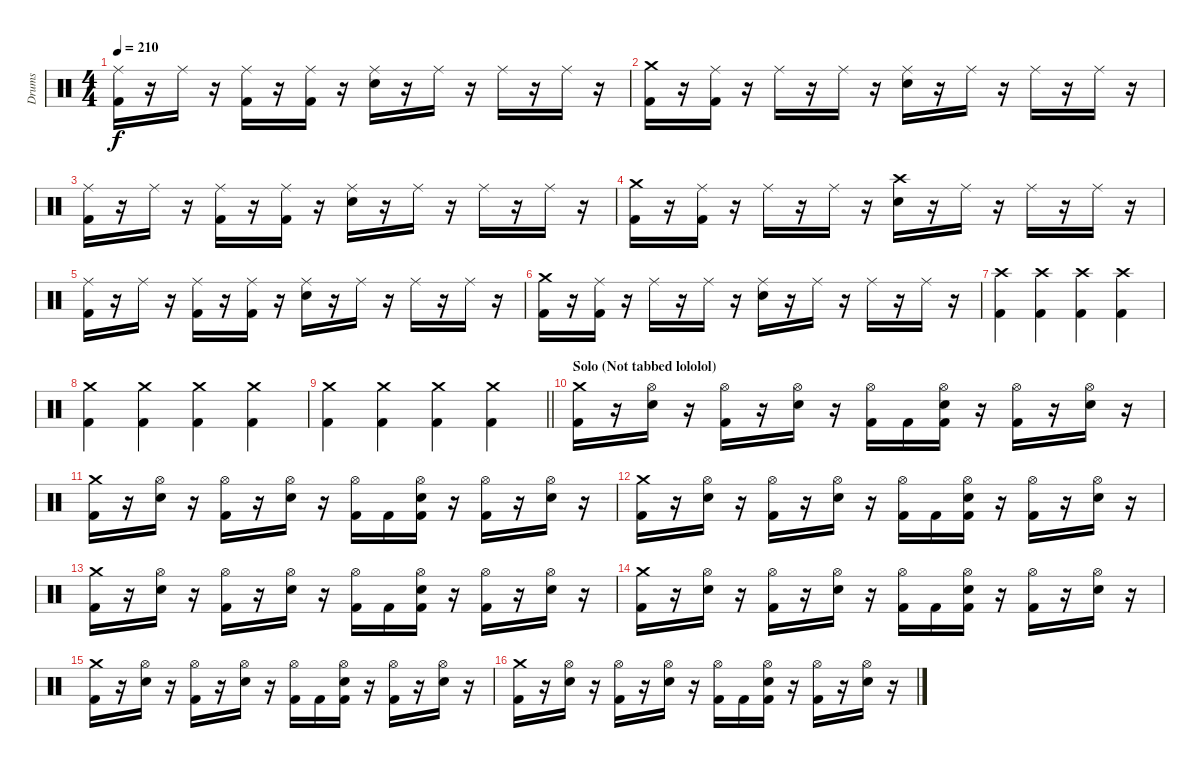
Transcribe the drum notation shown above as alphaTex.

\track ("Drums" "Drums") {instrument percussion}
\staff {score}
\articulation defaults
\ts (4 4)
\tempo 210
\clef neutral
\ks c
("Ride (middle)" "Kick (hit) 2").16{dy f} r.16 "Ride (middle)".16 r.16 ("Ride (middle)" "Kick (hit) 2").16 r.16 ("Ride (middle)" "Kick (hit) 2").16 r.16 ("Ride (middle)" "Electric Snare (hit)").16 r.16 "Ride (middle)".16 r.16 "Ride (middle)".16 r.16 "Ride (middle)".16 r.16 |
("Crash medium (hit)" "Kick (hit) 2").16 r.16 ("Ride (middle)" "Kick (hit) 2").16 r.16 "Ride (middle)".16 r.16 "Ride (middle)".16 r.16 ("Ride (middle)" "Electric Snare (hit)").16 r.16 "Ride (middle)".16 r.16 "Ride (middle)".16 r.16 "Ride (middle)".16 r.16 |
("Ride (middle)" "Kick (hit) 2").16 r.16 "Ride (middle)".16 r.16 ("Ride (middle)" "Kick (hit) 2").16 r.16 ("Ride (middle)" "Kick (hit) 2").16 r.16 ("Ride (middle)" "Electric Snare (hit)").16 r.16 "Ride (middle)".16 r.16 "Ride (middle)".16 r.16 "Ride (middle)".16 r.16 |
("Crash medium (hit)" "Kick (hit) 2").16 r.16 ("Ride (middle)" "Kick (hit) 2").16 r.16 "Ride (middle)".16 r.16 "Ride (middle)".16 r.16 ("Crash high (hit)" "Electric Snare (hit)").16 r.16 "Ride (middle)".16 r.16 "Ride (middle)".16 r.16 "Ride (middle)".16 r.16 |
("Ride (middle)" "Kick (hit) 2").16 r.16 "Ride (middle)".16 r.16 ("Ride (middle)" "Kick (hit) 2").16 r.16 ("Ride (middle)" "Kick (hit) 2").16 r.16 ("Ride (middle)" "Electric Snare (hit)").16 r.16 "Ride (middle)".16 r.16 "Ride (middle)".16 r.16 "Ride (middle)".16 r.16 |
("Crash medium (hit)" "Kick (hit) 2").16 r.16 ("Ride (middle)" "Kick (hit) 2").16 r.16 "Ride (middle)".16 r.16 "Ride (middle)".16 r.16 ("Ride (middle)" "Electric Snare (hit)").16 r.16 "Ride (middle)".16 r.16 "Ride (middle)".16 r.16 "Ride (middle)".16 r.16 |
("Crash high (hit)" "Kick (hit) 2").4 ("Crash high (hit)" "Kick (hit) 2").4 ("Crash high (hit)" "Kick (hit) 2").4 ("Crash high (hit)" "Kick (hit) 2").4 |
("Crash medium (hit)" "Kick (hit) 2").4 ("Crash medium (hit)" "Kick (hit) 2").4 ("Crash medium (hit)" "Kick (hit) 2").4 ("Crash medium (hit)" "Kick (hit) 2").4 |
\barLineRight lightlight
("Crash medium (hit)" "Kick (hit) 2").4 ("Crash medium (hit)" "Kick (hit) 2").4 ("Crash medium (hit)" "Kick (hit) 2").4 ("Crash medium (hit)" "Kick (hit) 2").4 |
\section ("" "Solo (Not tabbed lololol)")
("Crash medium (hit)" "Kick (hit) 2").16 r.16 ("Hi-Hat (open)" "Electric Snare (hit)").16 r.16 ("Hi-Hat (open)" "Kick (hit) 2").16 r.16 ("Hi-Hat (open)" "Electric Snare (hit)").16 r.16 ("Hi-Hat (open)" "Kick (hit) 2").16 "Kick (hit) 2".16 ("Hi-Hat (open)" "Electric Snare (hit)" "Kick (hit) 2").16 r.16 ("Hi-Hat (open)" "Kick (hit) 2").16 r.16 ("Hi-Hat (open)" "Electric Snare (hit)").16 r.16 |
("Crash medium (hit)" "Kick (hit) 2").16 r.16 ("Hi-Hat (open)" "Electric Snare (hit)").16 r.16 ("Hi-Hat (open)" "Kick (hit) 2").16 r.16 ("Hi-Hat (open)" "Electric Snare (hit)").16 r.16 ("Hi-Hat (open)" "Kick (hit) 2").16 "Kick (hit) 2".16 ("Hi-Hat (open)" "Electric Snare (hit)" "Kick (hit) 2").16 r.16 ("Hi-Hat (open)" "Kick (hit) 2").16 r.16 ("Hi-Hat (open)" "Electric Snare (hit)").16 r.16 |
("Crash medium (hit)" "Kick (hit) 2").16 r.16 ("Hi-Hat (open)" "Electric Snare (hit)").16 r.16 ("Hi-Hat (open)" "Kick (hit) 2").16 r.16 ("Hi-Hat (open)" "Electric Snare (hit)").16 r.16 ("Hi-Hat (open)" "Kick (hit) 2").16 "Kick (hit) 2".16 ("Hi-Hat (open)" "Electric Snare (hit)" "Kick (hit) 2").16 r.16 ("Hi-Hat (open)" "Kick (hit) 2").16 r.16 ("Hi-Hat (open)" "Electric Snare (hit)").16 r.16 |
("Crash medium (hit)" "Kick (hit) 2").16 r.16 ("Hi-Hat (open)" "Electric Snare (hit)").16 r.16 ("Hi-Hat (open)" "Kick (hit) 2").16 r.16 ("Hi-Hat (open)" "Electric Snare (hit)").16 r.16 ("Hi-Hat (open)" "Kick (hit) 2").16 "Kick (hit) 2".16 ("Hi-Hat (open)" "Electric Snare (hit)" "Kick (hit) 2").16 r.16 ("Hi-Hat (open)" "Kick (hit) 2").16 r.16 ("Hi-Hat (open)" "Electric Snare (hit)").16 r.16 |
("Crash medium (hit)" "Kick (hit) 2").16 r.16 ("Hi-Hat (open)" "Electric Snare (hit)").16 r.16 ("Hi-Hat (open)" "Kick (hit) 2").16 r.16 ("Hi-Hat (open)" "Electric Snare (hit)").16 r.16 ("Hi-Hat (open)" "Kick (hit) 2").16 "Kick (hit) 2".16 ("Hi-Hat (open)" "Electric Snare (hit)" "Kick (hit) 2").16 r.16 ("Hi-Hat (open)" "Kick (hit) 2").16 r.16 ("Hi-Hat (open)" "Electric Snare (hit)").16 r.16 |
("Crash medium (hit)" "Kick (hit) 2").16 r.16 ("Hi-Hat (open)" "Electric Snare (hit)").16 r.16 ("Hi-Hat (open)" "Kick (hit) 2").16 r.16 ("Hi-Hat (open)" "Electric Snare (hit)").16 r.16 ("Hi-Hat (open)" "Kick (hit) 2").16 "Kick (hit) 2".16 ("Hi-Hat (open)" "Electric Snare (hit)" "Kick (hit) 2").16 r.16 ("Hi-Hat (open)" "Kick (hit) 2").16 r.16 ("Hi-Hat (open)" "Electric Snare (hit)").16 r.16 |
("Crash medium (hit)" "Kick (hit) 2").16 r.16 ("Hi-Hat (open)" "Electric Snare (hit)").16 r.16 ("Hi-Hat (open)" "Kick (hit) 2").16 r.16 ("Hi-Hat (open)" "Electric Snare (hit)").16 r.16 ("Hi-Hat (open)" "Kick (hit) 2").16 "Kick (hit) 2".16 ("Hi-Hat (open)" "Electric Snare (hit)" "Kick (hit) 2").16 r.16 ("Hi-Hat (open)" "Kick (hit) 2").16 r.16 ("Hi-Hat (open)" "Electric Snare (hit)").16 r.16
